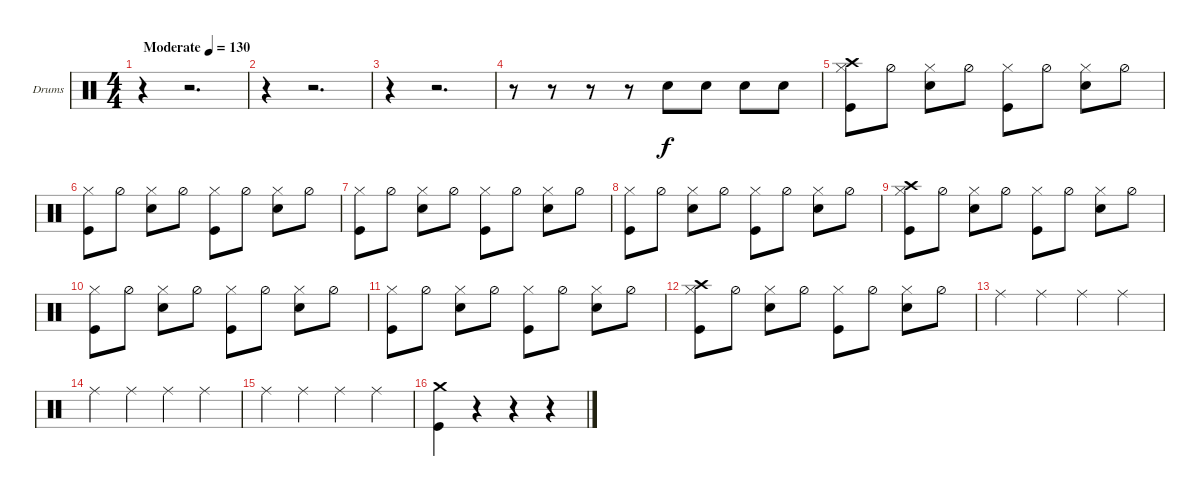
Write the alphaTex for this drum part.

\bracketExtendMode groupsimilarinstruments
\firstSystemTrackNameOrientation horizontal
\otherSystemsTrackNameOrientation horizontal
\track ("Drumkit" "Drums") {instrument percussion}
\staff {score}
\articulation defaults
\ts (4 4)
\beaming (8 2 2 2 2)
\tempo (130 "Moderate")
\clef neutral
\ks c
r.4{dy f} r.2{d} |
r.4 r.2{d} |
r.4 r.2{d} |
r.8 r.8 r.8 r.8 "Snare (hit) 2".8 "Snare (hit) 2".8 "Snare (hit) 2".8 "Snare (hit) 2".8 |
("Kick (hit)" "Hi-Hat (closed)" "Crash high (hit)").8 "Hi-Hat (half)".8 ("Snare (hit) 2" "Hi-Hat (closed)").8 "Hi-Hat (half)".8 ("Kick (hit)" "Hi-Hat (closed)").8 "Hi-Hat (half)".8 ("Snare (hit) 2" "Hi-Hat (closed)").8 "Hi-Hat (half)".8 |
("Kick (hit)" "Hi-Hat (closed)").8 "Hi-Hat (half)".8 ("Snare (hit) 2" "Hi-Hat (closed)").8 "Hi-Hat (half)".8 ("Kick (hit)" "Hi-Hat (closed)").8 "Hi-Hat (half)".8 ("Snare (hit) 2" "Hi-Hat (closed)").8 "Hi-Hat (half)".8 |
("Kick (hit)" "Hi-Hat (closed)").8 "Hi-Hat (half)".8 ("Snare (hit) 2" "Hi-Hat (closed)").8 "Hi-Hat (half)".8 ("Kick (hit)" "Hi-Hat (closed)").8 "Hi-Hat (half)".8 ("Snare (hit) 2" "Hi-Hat (closed)").8 "Hi-Hat (half)".8 |
("Kick (hit)" "Hi-Hat (closed)").8 "Hi-Hat (half)".8 ("Snare (hit) 2" "Hi-Hat (closed)").8 "Hi-Hat (half)".8 ("Kick (hit)" "Hi-Hat (closed)").8 "Hi-Hat (half)".8 ("Snare (hit) 2" "Hi-Hat (closed)").8 "Hi-Hat (half)".8 |
("Kick (hit)" "Hi-Hat (closed)" "Crash high (hit)").8 "Hi-Hat (half)".8 ("Snare (hit) 2" "Hi-Hat (closed)").8 "Hi-Hat (half)".8 ("Kick (hit)" "Hi-Hat (closed)").8 "Hi-Hat (half)".8 ("Snare (hit) 2" "Hi-Hat (closed)").8 "Hi-Hat (half)".8 |
("Kick (hit)" "Hi-Hat (closed)").8 "Hi-Hat (half)".8 ("Snare (hit) 2" "Hi-Hat (closed)").8 "Hi-Hat (half)".8 ("Kick (hit)" "Hi-Hat (closed)").8 "Hi-Hat (half)".8 ("Snare (hit) 2" "Hi-Hat (closed)").8 "Hi-Hat (half)".8 |
("Kick (hit)" "Hi-Hat (closed)").8 "Hi-Hat (half)".8 ("Snare (hit) 2" "Hi-Hat (closed)").8 "Hi-Hat (half)".8 ("Kick (hit)" "Hi-Hat (closed)").8 "Hi-Hat (half)".8 ("Snare (hit) 2" "Hi-Hat (closed)").8 "Hi-Hat (half)".8 |
("Kick (hit)" "Hi-Hat (closed)" "Crash high (hit)").8 "Hi-Hat (half)".8 ("Snare (hit) 2" "Hi-Hat (closed)").8 "Hi-Hat (half)".8 ("Kick (hit)" "Hi-Hat (closed)").8 "Hi-Hat (half)".8 ("Snare (hit) 2" "Hi-Hat (closed)").8 "Hi-Hat (half)".8 |
"Ride (middle)".4 "Ride (middle)".4 "Ride (middle)".4 "Ride (middle)".4 |
"Ride (middle)".4 "Ride (middle)".4 "Ride (middle)".4 "Ride (middle)".4 |
"Ride (middle)".4 "Ride (middle)".4 "Ride (middle)".4 "Ride (middle)".4 |
("Kick (hit)" "Crash medium (hit)").4 r.4 r.4 r.4
